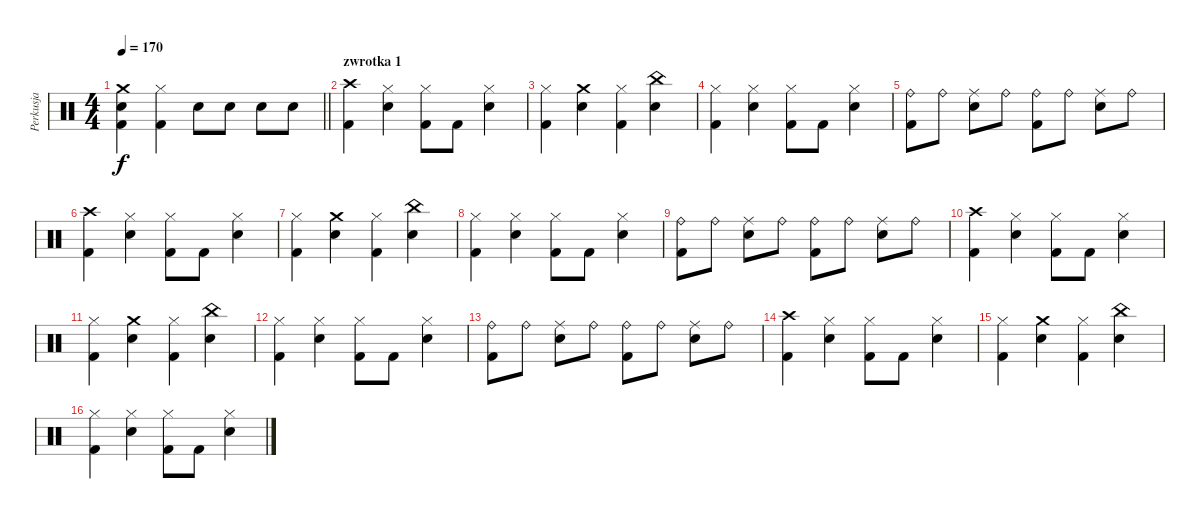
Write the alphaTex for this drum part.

\track ("Perkusja" "Perkusja") {instrument percussion}
\staff {score}
\articulation defaults
\ts (4 4)
\tempo 170
\clef neutral
\barLineRight lightlight
\ks c
("Crash medium (hit)" "Kick (hit) 2" "Snare (hit) 2").4{dy f} ("Hi-Hat (closed)" "Kick (hit) 2").4 "Snare (hit) 2".8 "Snare (hit) 2".8 "Snare (hit) 2".8 "Snare (hit) 2".8 |
\section ("" "zwrotka 1")
("Crash high (hit)" "Kick (hit) 2").4 ("Hi-Hat (closed)" "Snare (hit) 2").4 ("Hi-Hat (closed)" "Kick (hit) 2").8 "Kick (hit) 2".8 ("Hi-Hat (closed)" "Snare (hit) 2").4 |
("Hi-Hat (closed)" "Kick (hit) 2").4 ("Crash medium (hit)" "Snare (hit) 2").4 ("Hi-Hat (closed)" "Kick (hit) 2").4 ("China (hit)" "Snare (hit) 2").4 |
("Hi-Hat (closed)" "Kick (hit) 2").4 ("Hi-Hat (closed)" "Snare (hit) 2").4 ("Hi-Hat (closed)" "Kick (hit) 2").8 "Kick (hit) 2".8 ("Hi-Hat (closed)" "Snare (hit) 2").4 |
("Ride (bell)" "Kick (hit) 2").8 "Ride (bell)".8 ("Ride (middle)" "Snare (hit) 2").8 "Ride (bell)".8 ("Ride (bell)" "Kick (hit) 2").8 "Ride (bell)".8 ("Ride (middle)" "Snare (hit) 2").8 "Ride (bell)".8 |
("Crash high (hit)" "Kick (hit) 2").4 ("Hi-Hat (closed)" "Snare (hit) 2").4 ("Hi-Hat (closed)" "Kick (hit) 2").8 "Kick (hit) 2".8 ("Hi-Hat (closed)" "Snare (hit) 2").4 |
("Hi-Hat (closed)" "Kick (hit) 2").4 ("Crash medium (hit)" "Snare (hit) 2").4 ("Hi-Hat (closed)" "Kick (hit) 2").4 ("China (hit)" "Snare (hit) 2").4 |
("Hi-Hat (closed)" "Kick (hit) 2").4 ("Hi-Hat (closed)" "Snare (hit) 2").4 ("Hi-Hat (closed)" "Kick (hit) 2").8 "Kick (hit) 2".8 ("Hi-Hat (closed)" "Snare (hit) 2").4 |
("Ride (bell)" "Kick (hit) 2").8 "Ride (bell)".8 ("Ride (middle)" "Snare (hit) 2").8 "Ride (bell)".8 ("Ride (bell)" "Kick (hit) 2").8 "Ride (bell)".8 ("Ride (middle)" "Snare (hit) 2").8 "Ride (bell)".8 |
("Crash high (hit)" "Kick (hit) 2").4 ("Hi-Hat (closed)" "Snare (hit) 2").4 ("Hi-Hat (closed)" "Kick (hit) 2").8 "Kick (hit) 2".8 ("Hi-Hat (closed)" "Snare (hit) 2").4 |
("Hi-Hat (closed)" "Kick (hit) 2").4 ("Crash medium (hit)" "Snare (hit) 2").4 ("Hi-Hat (closed)" "Kick (hit) 2").4 ("China (hit)" "Snare (hit) 2").4 |
("Hi-Hat (closed)" "Kick (hit) 2").4 ("Hi-Hat (closed)" "Snare (hit) 2").4 ("Hi-Hat (closed)" "Kick (hit) 2").8 "Kick (hit) 2".8 ("Hi-Hat (closed)" "Snare (hit) 2").4 |
("Ride (bell)" "Kick (hit) 2").8 "Ride (bell)".8 ("Ride (middle)" "Snare (hit) 2").8 "Ride (bell)".8 ("Ride (bell)" "Kick (hit) 2").8 "Ride (bell)".8 ("Ride (middle)" "Snare (hit) 2").8 "Ride (bell)".8 |
("Crash high (hit)" "Kick (hit) 2").4 ("Hi-Hat (closed)" "Snare (hit) 2").4 ("Hi-Hat (closed)" "Kick (hit) 2").8 "Kick (hit) 2".8 ("Hi-Hat (closed)" "Snare (hit) 2").4 |
("Hi-Hat (closed)" "Kick (hit) 2").4 ("Crash medium (hit)" "Snare (hit) 2").4 ("Hi-Hat (closed)" "Kick (hit) 2").4 ("China (hit)" "Snare (hit) 2").4 |
("Hi-Hat (closed)" "Kick (hit) 2").4 ("Hi-Hat (closed)" "Snare (hit) 2").4 ("Hi-Hat (closed)" "Kick (hit) 2").8 "Kick (hit) 2".8 ("Hi-Hat (closed)" "Snare (hit) 2").4
